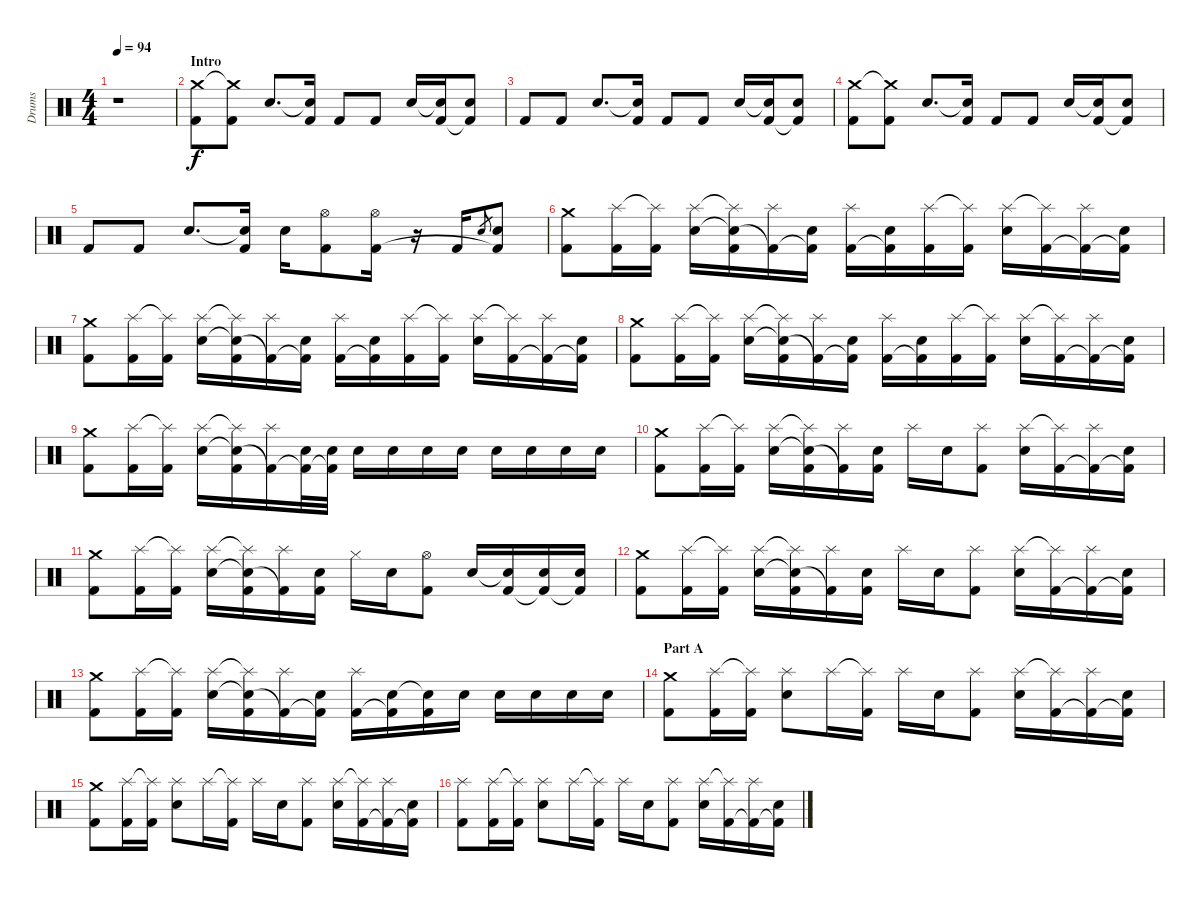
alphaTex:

\track ("Drums" "Drums") {instrument percussion}
\staff {score}
\articulation defaults
\ts (4 4)
\tempo 94
\clef neutral
\ks c
r.1{dy f} |
\section ("" "Intro")
("Crash medium (hit)" "Kick (hit) 2").8 ("Crash medium (hit)"{t} "Kick (hit) 2").8 "Electric Snare (hit)".8{d} ("Electric Snare (hit)"{t} "Kick (hit) 2").16 "Kick (hit) 2".8 "Kick (hit) 2".8 "Electric Snare (hit)".16 ("Electric Snare (hit)"{t} "Kick (hit) 2").16 ("Electric Snare (hit)" "Kick (hit) 2"{t}).8 |
"Kick (hit) 2".8 "Kick (hit) 2".8 "Electric Snare (hit)".8{d} ("Electric Snare (hit)"{t} "Kick (hit) 2").16 "Kick (hit) 2".8 "Kick (hit) 2".8 "Electric Snare (hit)".16 ("Electric Snare (hit)"{t} "Kick (hit) 2").16 ("Electric Snare (hit)" "Kick (hit) 2"{t}).8 |
("Crash medium (hit)" "Kick (hit) 2").8 ("Crash medium (hit)"{t} "Kick (hit) 2").8 "Electric Snare (hit)".8{d} ("Electric Snare (hit)"{t} "Kick (hit) 2").16 "Kick (hit) 2".8 "Kick (hit) 2".8 "Electric Snare (hit)".16 ("Electric Snare (hit)"{t} "Kick (hit) 2").16 ("Electric Snare (hit)" "Kick (hit) 2"{t}).8 |
"Kick (hit) 2".8 "Kick (hit) 2".8 "Electric Snare (hit)".8{d} ("Electric Snare (hit)"{t} "Kick (hit) 2").16 "Electric Snare (hit)".16 ("Hi-Hat (open)" "Kick (hit) 2").8 ("Hi-Hat (open)" "Kick (hit) 2").16 r.16 "Kick (hit) 2".16 "Electric Snare (hit)".8{gr} ("Electric Snare (hit)" "Kick (hit) 2"{t}).8 |
("Crash medium (hit)" "Kick (hit) 2").8 ("Splash (hit)" "Kick (hit) 2").16 ("Splash (hit)"{t} "Kick (hit) 2").16 ("Splash (hit)" "Electric Snare (hit)").16 ("Splash (hit)"{t} "Electric Snare (hit)"{t} "Kick (hit) 2").16 ("Splash (hit)" "Kick (hit) 2"{t}).16 ("Electric Snare (hit)" "Kick (hit) 2"{t}).16 ("Splash (hit)" "Kick (hit) 2").16 ("Electric Snare (hit)" "Kick (hit) 2"{t}).16 ("Splash (hit)" "Kick (hit) 2").16 ("Splash (hit)"{t} "Kick (hit) 2").16 ("Splash (hit)" "Electric Snare (hit)").16 ("Splash (hit)"{t} "Kick (hit) 2").16 ("Splash (hit)" "Kick (hit) 2"{t}).16 ("Electric Snare (hit)" "Kick (hit) 2"{t}).16 |
("Crash medium (hit)" "Kick (hit) 2").8 ("Splash (hit)" "Kick (hit) 2").16 ("Splash (hit)"{t} "Kick (hit) 2").16 ("Splash (hit)" "Electric Snare (hit)").16 ("Splash (hit)"{t} "Electric Snare (hit)"{t} "Kick (hit) 2").16 ("Splash (hit)" "Kick (hit) 2"{t}).16 ("Electric Snare (hit)" "Kick (hit) 2"{t}).16 ("Splash (hit)" "Kick (hit) 2").16 ("Electric Snare (hit)" "Kick (hit) 2"{t}).16 ("Splash (hit)" "Kick (hit) 2").16 ("Splash (hit)"{t} "Kick (hit) 2").16 ("Splash (hit)" "Electric Snare (hit)").16 ("Splash (hit)"{t} "Kick (hit) 2").16 ("Splash (hit)" "Kick (hit) 2"{t}).16 ("Electric Snare (hit)" "Kick (hit) 2"{t}).16 |
("Crash medium (hit)" "Kick (hit) 2").8 ("Splash (hit)" "Kick (hit) 2").16 ("Splash (hit)"{t} "Kick (hit) 2").16 ("Splash (hit)" "Electric Snare (hit)").16 ("Splash (hit)"{t} "Electric Snare (hit)"{t} "Kick (hit) 2").16 ("Splash (hit)" "Kick (hit) 2"{t}).16 ("Electric Snare (hit)" "Kick (hit) 2"{t}).16 ("Splash (hit)" "Kick (hit) 2").16 ("Electric Snare (hit)" "Kick (hit) 2"{t}).16 ("Splash (hit)" "Kick (hit) 2").16 ("Splash (hit)"{t} "Kick (hit) 2").16 ("Splash (hit)" "Electric Snare (hit)").16 ("Splash (hit)"{t} "Kick (hit) 2").16 ("Splash (hit)" "Kick (hit) 2"{t}).16 ("Electric Snare (hit)" "Kick (hit) 2"{t}).16 |
("Crash medium (hit)" "Kick (hit) 2").8 ("Splash (hit)" "Kick (hit) 2").16 ("Splash (hit)"{t} "Kick (hit) 2").16 ("Splash (hit)" "Electric Snare (hit)").16 ("Splash (hit)"{t} "Electric Snare (hit)"{t} "Kick (hit) 2").16 ("Splash (hit)" "Kick (hit) 2"{t}).16 ("Electric Snare (hit)" "Kick (hit) 2"{t}).32 ("Electric Snare (hit)" "Kick (hit) 2"{t}).32 "Electric Snare (hit)".16 "Electric Snare (hit)".16 "Electric Snare (hit)".16 "Electric Snare (hit)".16 "Electric Snare (hit)".16 "Electric Snare (hit)".16 "Electric Snare (hit)".16 "Electric Snare (hit)".16 |
("Crash medium (hit)" "Kick (hit) 2").8 ("Splash (hit)" "Kick (hit) 2").16 ("Splash (hit)"{t} "Kick (hit) 2").16 ("Splash (hit)" "Electric Snare (hit)").16 ("Splash (hit)"{t} "Electric Snare (hit)"{t} "Kick (hit) 2").16 ("Splash (hit)" "Kick (hit) 2"{t}).16 ("Electric Snare (hit)" "Kick (hit) 2").16 "Splash (hit)".16 "Electric Snare (hit)".16 ("Splash (hit)" "Kick (hit) 2").8 ("Splash (hit)" "Electric Snare (hit)").16 ("Splash (hit)"{t} "Kick (hit) 2").16 ("Splash (hit)" "Kick (hit) 2"{t}).16 ("Electric Snare (hit)" "Kick (hit) 2"{t}).16 |
("Crash medium (hit)" "Kick (hit) 2").8 ("Splash (hit)" "Kick (hit) 2").16 ("Splash (hit)"{t} "Kick (hit) 2").16 ("Splash (hit)" "Electric Snare (hit)").16 ("Splash (hit)"{t} "Electric Snare (hit)"{t} "Kick (hit) 2").16 ("Splash (hit)" "Kick (hit) 2"{t}).16 ("Electric Snare (hit)" "Kick (hit) 2").16 "Hi-Hat (closed)".16 "Electric Snare (hit)".16 ("Hi-Hat (open)" "Kick (hit) 2").8 "Electric Snare (hit)".16 ("Electric Snare (hit)"{t} "Kick (hit) 2").16 ("Electric Snare (hit)" "Kick (hit) 2"{t}).16 ("Electric Snare (hit)" "Kick (hit) 2"{t}).16 |
("Crash medium (hit)" "Kick (hit) 2").8 ("Splash (hit)" "Kick (hit) 2").16 ("Splash (hit)"{t} "Kick (hit) 2").16 ("Splash (hit)" "Electric Snare (hit)").16 ("Splash (hit)"{t} "Electric Snare (hit)"{t} "Kick (hit) 2").16 ("Splash (hit)" "Kick (hit) 2"{t}).16 ("Electric Snare (hit)" "Kick (hit) 2").16 "Splash (hit)".16 "Electric Snare (hit)".16 ("Splash (hit)" "Kick (hit) 2").8 ("Splash (hit)" "Electric Snare (hit)").16 ("Splash (hit)"{t} "Kick (hit) 2").16 ("Splash (hit)" "Kick (hit) 2"{t}).16 ("Electric Snare (hit)" "Kick (hit) 2"{t}).16 |
("Crash medium (hit)" "Kick (hit) 2").8 ("Splash (hit)" "Kick (hit) 2").16 ("Splash (hit)"{t} "Kick (hit) 2").16 ("Splash (hit)" "Electric Snare (hit)").16 ("Splash (hit)"{t} "Electric Snare (hit)"{t} "Kick (hit) 2").16 ("Splash (hit)" "Kick (hit) 2"{t}).16 ("Electric Snare (hit)" "Kick (hit) 2"{t}).16 ("Splash (hit)" "Kick (hit) 2").16 ("Electric Snare (hit)" "Kick (hit) 2"{t}).16 ("Electric Snare (hit)"{t} "Kick (hit) 2").16 "Electric Snare (hit)".16 "Electric Snare (hit)".16 "Electric Snare (hit)".16 "Electric Snare (hit)".16 "Electric Snare (hit)".16 |
\section ("" "Part A")
("Crash medium (hit)" "Kick (hit) 2").8 ("Splash (hit)" "Kick (hit) 2").16 ("Splash (hit)"{t} "Kick (hit) 2").16 ("Splash (hit)" "Electric Snare (hit)").8 "Splash (hit)".16 ("Splash (hit)"{t} "Kick (hit) 2").16 "Splash (hit)".16 "Electric Snare (hit)".16 ("Splash (hit)" "Kick (hit) 2").8 ("Splash (hit)" "Electric Snare (hit)").16 ("Splash (hit)"{t} "Kick (hit) 2").16 ("Splash (hit)" "Kick (hit) 2"{t}).16 ("Electric Snare (hit)" "Kick (hit) 2"{t}).16 |
("Crash medium (hit)" "Kick (hit) 2").8 ("Splash (hit)" "Kick (hit) 2").16 ("Splash (hit)"{t} "Kick (hit) 2").16 ("Splash (hit)" "Electric Snare (hit)").8 "Splash (hit)".16 ("Splash (hit)"{t} "Kick (hit) 2").16 "Splash (hit)".16 "Electric Snare (hit)".16 ("Splash (hit)" "Kick (hit) 2").8 ("Splash (hit)" "Electric Snare (hit)").16 ("Splash (hit)"{t} "Kick (hit) 2").16 ("Splash (hit)" "Kick (hit) 2"{t}).16 ("Electric Snare (hit)" "Kick (hit) 2"{t}).16 |
("Splash (hit)" "Kick (hit) 2").8 ("Splash (hit)" "Kick (hit) 2").16 ("Splash (hit)"{t} "Kick (hit) 2").16 ("Splash (hit)" "Electric Snare (hit)").8 "Splash (hit)".16 ("Splash (hit)"{t} "Kick (hit) 2").16 "Splash (hit)".16 "Electric Snare (hit)".16 ("Splash (hit)" "Kick (hit) 2").8 ("Splash (hit)" "Electric Snare (hit)").16 ("Splash (hit)"{t} "Kick (hit) 2").16 ("Splash (hit)" "Kick (hit) 2"{t}).16 ("Electric Snare (hit)" "Kick (hit) 2"{t}).16
